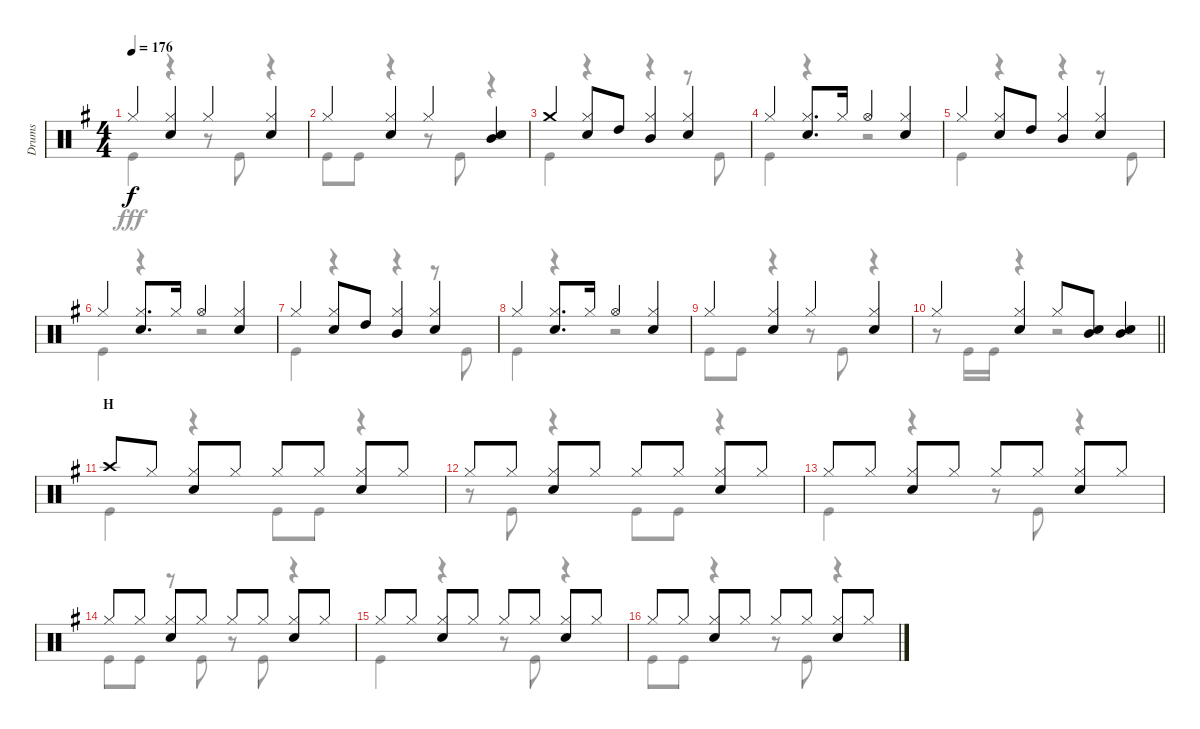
\track ("Drums" "Drums") {instrument percussion}
\staff {score}
\articulation defaults
\voice
\ts (4 4)
\tempo 176
\clef neutral
\ks g "Hi-Hat (closed)".4{dy f}
("Hi-Hat (closed)" "Snare (hit) 2").4 "Hi-Hat (closed)".4 ("Hi-Hat (closed)" "Snare (hit) 2").4 |
"Hi-Hat (closed)".4 ("Hi-Hat (closed)" "Snare (hit) 2").4 "Hi-Hat (closed)".4 ("Mid Tom (hit)" "Snare (hit) 2").4 |
"Crash medium (hit)".4 ("Hi-Hat (closed)" "Snare (hit) 2").8 "High Tom (hit)".8 ("Hi-Hat (closed)" "Mid Tom (hit)").4 ("Hi-Hat (closed)" "Snare (hit) 2").4 |
"Hi-Hat (closed)".4 ("Hi-Hat (closed)" "Snare (hit) 2").8{d} "Hi-Hat (closed)".16 "Hi-Hat (open)".4 ("Hi-Hat (closed)" "Snare (hit) 2").4 |
"Hi-Hat (closed)".4 ("Hi-Hat (closed)" "Snare (hit) 2").8 "High Tom (hit)".8 ("Hi-Hat (closed)" "Mid Tom (hit)").4 ("Hi-Hat (closed)" "Snare (hit) 2").4 |
"Hi-Hat (closed)".4 ("Hi-Hat (closed)" "Snare (hit) 2").8{d} "Hi-Hat (closed)".16 "Hi-Hat (open)".4 ("Hi-Hat (closed)" "Snare (hit) 2").4 |
"Hi-Hat (closed)".4 ("Hi-Hat (closed)" "Snare (hit) 2").8 "High Tom (hit)".8 ("Hi-Hat (closed)" "Mid Tom (hit)").4 ("Hi-Hat (closed)" "Snare (hit) 2").4 |
"Hi-Hat (closed)".4 ("Hi-Hat (closed)" "Snare (hit) 2").8{d} "Hi-Hat (closed)".16 "Hi-Hat (open)".4 ("Hi-Hat (closed)" "Snare (hit) 2").4 |
"Hi-Hat (closed)".4 ("Hi-Hat (closed)" "Snare (hit) 2").4 "Hi-Hat (closed)".4 ("Hi-Hat (closed)" "Snare (hit) 2").4 |
\barLineRight lightlight "Hi-Hat (closed)".4
("Hi-Hat (closed)" "Snare (hit) 2").4 "Hi-Hat (closed)".8 ("Mid Tom (hit)" "Snare (hit) 2").8 ("Mid Tom (hit)" "Snare (hit) 2").4 |
\section ("" "H")
"Crash high (hit)".8 "Hi-Hat (closed)".8 ("Hi-Hat (closed)" "Snare (hit) 2").8 "Hi-Hat (closed)".8 "Hi-Hat (closed)".8 "Hi-Hat (closed)".8 ("Hi-Hat (closed)" "Snare (hit) 2").8 "Hi-Hat (closed)".8 |
"Hi-Hat (closed)".8 "Hi-Hat (closed)".8 ("Hi-Hat (closed)" "Snare (hit) 2").8 "Hi-Hat (closed)".8 "Hi-Hat (closed)".8 "Hi-Hat (closed)".8 ("Hi-Hat (closed)" "Snare (hit) 2").8 "Hi-Hat (closed)".8 |
"Hi-Hat (closed)".8 "Hi-Hat (closed)".8 ("Hi-Hat (closed)" "Snare (hit) 2").8 "Hi-Hat (closed)".8 "Hi-Hat (closed)".8 "Hi-Hat (closed)".8 ("Hi-Hat (closed)" "Snare (hit) 2").8 "Hi-Hat (closed)".8 |
"Hi-Hat (closed)".8 "Hi-Hat (closed)".8 ("Hi-Hat (closed)" "Snare (hit) 2").8 "Hi-Hat (closed)".8 "Hi-Hat (closed)".8 "Hi-Hat (closed)".8 ("Hi-Hat (closed)" "Snare (hit) 2").8 "Hi-Hat (closed)".8 |
"Hi-Hat (closed)".8 "Hi-Hat (closed)".8 ("Hi-Hat (closed)" "Snare (hit) 2").8 "Hi-Hat (closed)".8 "Hi-Hat (closed)".8 "Hi-Hat (closed)".8 ("Hi-Hat (closed)" "Snare (hit) 2").8 "Hi-Hat (closed)".8 |
"Hi-Hat (closed)".8 "Hi-Hat (closed)".8 ("Hi-Hat (closed)" "Snare (hit) 2").8 "Hi-Hat (closed)".8 "Hi-Hat (closed)".8 "Hi-Hat (closed)".8 ("Hi-Hat (closed)" "Snare (hit) 2").8 "Hi-Hat (closed)".8
\voice
\clef neutral
\ottava regular
\simile none
\ks g "Kick (hit)".4{dy fff}
r.4 r.8 "Kick (hit)".8 r.4 |
"Kick (hit)".8 "Kick (hit)".8 r.4 r.8 "Kick (hit)".8 r.4 |
"Kick (hit)".4 r.4 r.4 r.8 "Kick (hit)".8 |
"Kick (hit)".4 r.4 r.2 |
"Kick (hit)".4 r.4 r.4 r.8 "Kick (hit)".8 |
"Kick (hit)".4 r.4 r.2 |
"Kick (hit)".4 r.4 r.4 r.8 "Kick (hit)".8 |
"Kick (hit)".4 r.4 r.2 |
"Kick (hit)".8 "Kick (hit)".8 r.4 r.8 "Kick (hit)".8 r.4 |
\barLineRight lightlight
r.8 "Kick (hit)".16 "Kick (hit)".16 r.4 r.2 |
"Kick (hit)".4 r.4 "Kick (hit)".8 "Kick (hit)".8 r.4 |
r.8 "Kick (hit)".8 r.4 "Kick (hit)".8 "Kick (hit)".8 r.4 |
"Kick (hit)".4 r.4 r.8 "Kick (hit)".8 r.4 |
"Kick (hit)".8 "Kick (hit)".8 r.8 "Kick (hit)".8 r.8 "Kick (hit)".8 r.4 |
"Kick (hit)".4 r.4 r.8 "Kick (hit)".8 r.4 |
"Kick (hit)".8 "Kick (hit)".8 r.4 r.8 "Kick (hit)".8 r.4
